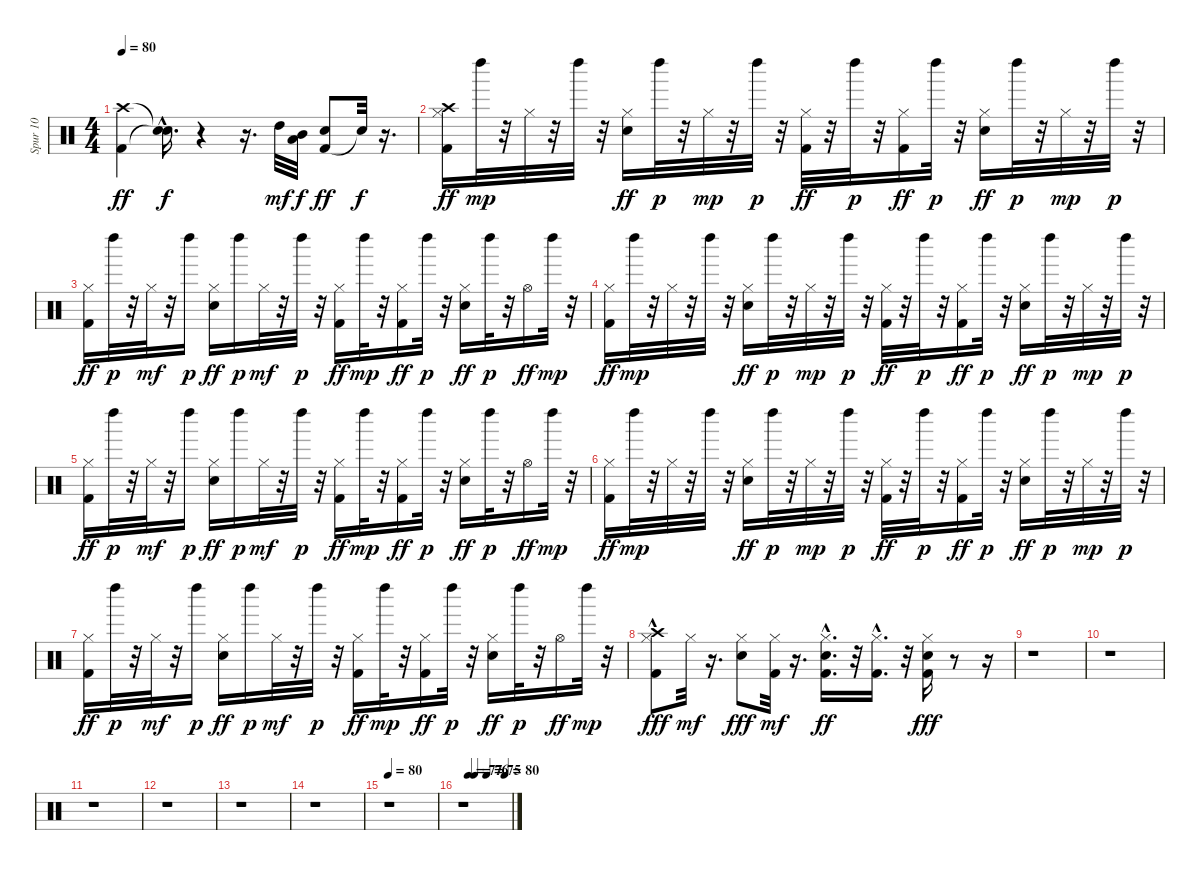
\track ("Spur 10" "Spur 10") {instrument percussion}
\staff {score}
\articulation defaults
\ts (4 4)
\tempo 80
\clef neutral
\ks c
("Crash high (hit)" "Kick (hit) 2").4{dy ff} ("Snare (hit)"{hac t} "Snare (hit)"{hac t}).16{d dy f} r.4 r.16{d} "High Tom (hit)".32{dy mf} ("Mid Tom (hit)" "Low Tom (hit)").32{dy f} ("Kick (hit) 2" "Electric Snare (hit)").8{dy ff} "Snare (hit)"{t}.32{dy f} r.16{d} |
("Hi-Hat (closed)" "Kick (hit) 2" "Crash high (hit)").16{dy ff} "Left Maraca (hit)".32{dy mp} r.32 "Hi-Hat (closed)".32 r.32 "Left Maraca (hit)".32 r.32 ("Electric Snare (hit)" "Hi-Hat (closed)").16{dy ff} "Left Maraca (hit)".32{dy p} r.32 "Hi-Hat (closed)".32{dy mp} r.32 "Left Maraca (hit)".32{dy p} r.32 ("Hi-Hat (closed)" "Kick (hit) 2").32{dy ff} r.32 "Left Maraca (hit)".32{dy p} r.32 ("Hi-Hat (closed)" "Kick (hit) 2").16{dy ff} "Left Maraca (hit)".32{dy p} r.32 ("Electric Snare (hit)" "Hi-Hat (closed)").16{dy ff} "Left Maraca (hit)".32{dy p} r.32 "Hi-Hat (closed)".32{dy mp} r.32 "Left Maraca (hit)".32{dy p} r.32 |
("Hi-Hat (closed)" "Kick (hit) 2").16{dy ff} "Left Maraca (hit)".32{dy p} r.32 "Hi-Hat (closed)".32{dy mf} r.32 "Left Maraca (hit)".16{dy p} ("Electric Snare (hit)" "Hi-Hat (closed)").16{dy ff} "Left Maraca (hit)".16{dy p} "Hi-Hat (closed)".32{dy mf} r.32 "Left Maraca (hit)".32{dy p} r.32 ("Hi-Hat (closed)" "Kick (hit) 2").16{dy ff} "Left Maraca (hit)".32{dy mp} r.32 ("Hi-Hat (closed)" "Kick (hit) 2").16{dy ff} "Left Maraca (hit)".32{dy p} r.32 ("Electric Snare (hit)" "Hi-Hat (closed)").16{dy ff} "Left Maraca (hit)".32{dy p} r.32 "Hi-Hat (open)".16{dy ff} "Left Maraca (hit)".32{dy mp} r.32 |
("Hi-Hat (closed)" "Kick (hit) 2").16{dy ff} "Left Maraca (hit)".32{dy mp} r.32 "Hi-Hat (closed)".32 r.32 "Left Maraca (hit)".32 r.32 ("Electric Snare (hit)" "Hi-Hat (closed)").16{dy ff} "Left Maraca (hit)".32{dy p} r.32 "Hi-Hat (closed)".32{dy mp} r.32 "Left Maraca (hit)".32{dy p} r.32 ("Hi-Hat (closed)" "Kick (hit) 2").32{dy ff} r.32 "Left Maraca (hit)".32{dy p} r.32 ("Hi-Hat (closed)" "Kick (hit) 2").16{dy ff} "Left Maraca (hit)".32{dy p} r.32 ("Electric Snare (hit)" "Hi-Hat (closed)").16{dy ff} "Left Maraca (hit)".32{dy p} r.32 "Hi-Hat (closed)".32{dy mp} r.32 "Left Maraca (hit)".32{dy p} r.32 |
("Hi-Hat (closed)" "Kick (hit) 2").16{dy ff} "Left Maraca (hit)".32{dy p} r.32 "Hi-Hat (closed)".32{dy mf} r.32 "Left Maraca (hit)".16{dy p} ("Electric Snare (hit)" "Hi-Hat (closed)").16{dy ff} "Left Maraca (hit)".16{dy p} "Hi-Hat (closed)".32{dy mf} r.32 "Left Maraca (hit)".32{dy p} r.32 ("Hi-Hat (closed)" "Kick (hit) 2").16{dy ff} "Left Maraca (hit)".32{dy mp} r.32 ("Hi-Hat (closed)" "Kick (hit) 2").16{dy ff} "Left Maraca (hit)".32{dy p} r.32 ("Electric Snare (hit)" "Hi-Hat (closed)").16{dy ff} "Left Maraca (hit)".32{dy p} r.32 "Hi-Hat (open)".16{dy ff} "Left Maraca (hit)".32{dy mp} r.32 |
("Hi-Hat (closed)" "Kick (hit) 2").16{dy ff} "Left Maraca (hit)".32{dy mp} r.32 "Hi-Hat (closed)".32 r.32 "Left Maraca (hit)".32 r.32 ("Electric Snare (hit)" "Hi-Hat (closed)").16{dy ff} "Left Maraca (hit)".32{dy p} r.32 "Hi-Hat (closed)".32{dy mp} r.32 "Left Maraca (hit)".32{dy p} r.32 ("Hi-Hat (closed)" "Kick (hit) 2").32{dy ff} r.32 "Left Maraca (hit)".32{dy p} r.32 ("Hi-Hat (closed)" "Kick (hit) 2").16{dy ff} "Left Maraca (hit)".32{dy p} r.32 ("Electric Snare (hit)" "Hi-Hat (closed)").16{dy ff} "Left Maraca (hit)".32{dy p} r.32 "Hi-Hat (closed)".32{dy mp} r.32 "Left Maraca (hit)".32{dy p} r.32 |
("Hi-Hat (closed)" "Kick (hit) 2").16{dy ff} "Left Maraca (hit)".32{dy p} r.32 "Hi-Hat (closed)".32{dy mf} r.32 "Left Maraca (hit)".16{dy p} ("Electric Snare (hit)" "Hi-Hat (closed)").16{dy ff} "Left Maraca (hit)".16{dy p} "Hi-Hat (closed)".32{dy mf} r.32 "Left Maraca (hit)".32{dy p} r.32 ("Hi-Hat (closed)" "Kick (hit) 2").16{dy ff} "Left Maraca (hit)".32{dy mp} r.32 ("Hi-Hat (closed)" "Kick (hit) 2").16{dy ff} "Left Maraca (hit)".32{dy p} r.32 ("Electric Snare (hit)" "Hi-Hat (closed)").16{dy ff} "Left Maraca (hit)".32{dy p} r.32 "Hi-Hat (open)".16{dy ff} "Left Maraca (hit)".32{dy mp} r.32 |
("Hi-Hat (closed)" "Kick (hit) 2" "Crash high (hit)"{hac}).8{dy fff} "Hi-Hat (closed)".32{dy mf} r.16{d} ("Electric Snare (hit)" "Hi-Hat (closed)").8{dy fff} ("Hi-Hat (closed)" "Kick (hit) 2").32{dy mf} r.16{d} ("Electric Snare (hit)"{hac} "Hi-Hat (closed)" "Kick (hit) 2").16{d dy ff} r.32 ("Hi-Hat (closed)" "Kick (hit) 2"{hac}).16{d} r.32 ("Electric Snare (hit)" "Hi-Hat (closed)" "Kick (hit) 2").16{dy fff} r.8 r.16 |
r.1 |
r.1 |
r.1 |
r.1 |
r.1 |
r.1 |
\tempo 80
r.1 |
\tempo (77 0.125)
\tempo (76 0.25)
\tempo (75 0.5)
\tempo (80 0.875)
r.1
